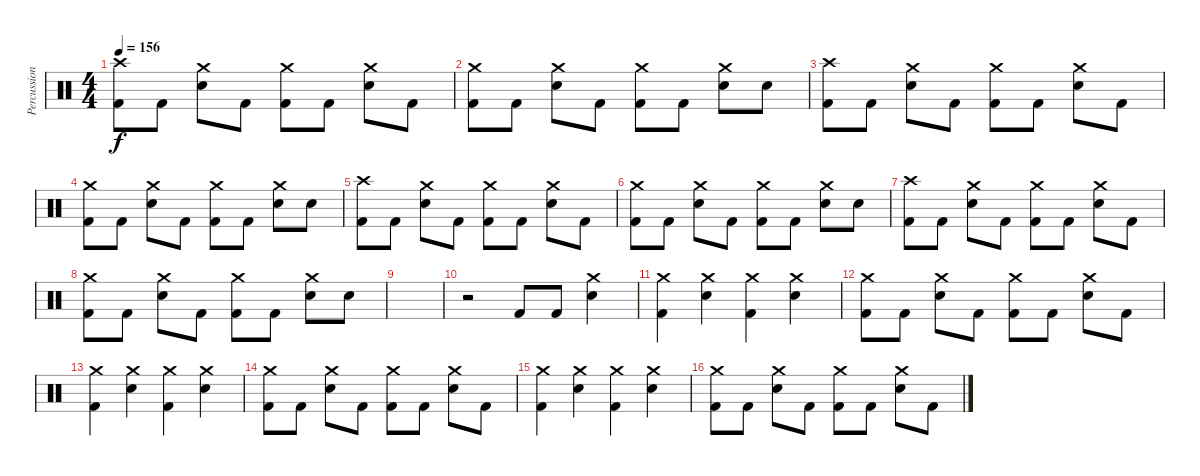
\track ("Percussion" "Percussion") {instrument percussion}
\staff {score}
\articulation defaults
\ts (4 4)
\tempo 156
\clef neutral
\ks c
("Crash high (hit)" "Kick (hit) 2").8{dy f} "Kick (hit) 2".8 ("Crash medium (hit)" "Electric Snare (hit)").8 "Kick (hit) 2".8 ("Crash medium (hit)" "Kick (hit) 2").8 "Kick (hit) 2".8 ("Crash medium (hit)" "Electric Snare (hit)").8 "Kick (hit) 2".8 |
("Crash medium (hit)" "Kick (hit) 2").8 "Kick (hit) 2".8 ("Crash medium (hit)" "Electric Snare (hit)").8 "Kick (hit) 2".8 ("Crash medium (hit)" "Kick (hit) 2").8 "Kick (hit) 2".8 ("Crash medium (hit)" "Electric Snare (hit)").8 "Electric Snare (hit)".8 |
("Crash high (hit)" "Kick (hit) 2").8 "Kick (hit) 2".8 ("Crash medium (hit)" "Electric Snare (hit)").8 "Kick (hit) 2".8 ("Crash medium (hit)" "Kick (hit) 2").8 "Kick (hit) 2".8 ("Crash medium (hit)" "Electric Snare (hit)").8 "Kick (hit) 2".8 |
("Crash medium (hit)" "Kick (hit) 2").8 "Kick (hit) 2".8 ("Crash medium (hit)" "Electric Snare (hit)").8 "Kick (hit) 2".8 ("Crash medium (hit)" "Kick (hit) 2").8 "Kick (hit) 2".8 ("Crash medium (hit)" "Electric Snare (hit)").8 "Electric Snare (hit)".8 |
("Crash high (hit)" "Kick (hit) 2").8 "Kick (hit) 2".8 ("Crash medium (hit)" "Electric Snare (hit)").8 "Kick (hit) 2".8 ("Crash medium (hit)" "Kick (hit) 2").8 "Kick (hit) 2".8 ("Crash medium (hit)" "Electric Snare (hit)").8 "Kick (hit) 2".8 |
("Crash medium (hit)" "Kick (hit) 2").8 "Kick (hit) 2".8 ("Crash medium (hit)" "Electric Snare (hit)").8 "Kick (hit) 2".8 ("Crash medium (hit)" "Kick (hit) 2").8 "Kick (hit) 2".8 ("Crash medium (hit)" "Electric Snare (hit)").8 "Electric Snare (hit)".8 |
("Crash high (hit)" "Kick (hit) 2").8 "Kick (hit) 2".8 ("Crash medium (hit)" "Electric Snare (hit)").8 "Kick (hit) 2".8 ("Crash medium (hit)" "Kick (hit) 2").8 "Kick (hit) 2".8 ("Crash medium (hit)" "Electric Snare (hit)").8 "Kick (hit) 2".8 |
("Crash medium (hit)" "Kick (hit) 2").8 "Kick (hit) 2".8 ("Crash medium (hit)" "Electric Snare (hit)").8 "Kick (hit) 2".8 ("Crash medium (hit)" "Kick (hit) 2").8 "Kick (hit) 2".8 ("Crash medium (hit)" "Electric Snare (hit)").8 "Electric Snare (hit)".8 |
|
r.2 "Kick (hit) 2".8 "Kick (hit) 2".8 ("Crash medium (hit)" "Electric Snare (hit)").4 |
("Crash medium (hit)" "Kick (hit) 2").4 ("Crash medium (hit)" "Electric Snare (hit)").4 ("Crash medium (hit)" "Kick (hit) 2").4 ("Crash medium (hit)" "Electric Snare (hit)").4 |
("Crash medium (hit)" "Kick (hit) 2").8 "Kick (hit) 2".8 ("Crash medium (hit)" "Electric Snare (hit)").8 "Kick (hit) 2".8 ("Crash medium (hit)" "Kick (hit) 2").8 "Kick (hit) 2".8 ("Crash medium (hit)" "Electric Snare (hit)").8 "Kick (hit) 2".8 |
("Crash medium (hit)" "Kick (hit) 2").4 ("Crash medium (hit)" "Electric Snare (hit)").4 ("Crash medium (hit)" "Kick (hit) 2").4 ("Crash medium (hit)" "Electric Snare (hit)").4 |
("Crash medium (hit)" "Kick (hit) 2").8 "Kick (hit) 2".8 ("Crash medium (hit)" "Electric Snare (hit)").8 "Kick (hit) 2".8 ("Crash medium (hit)" "Kick (hit) 2").8 "Kick (hit) 2".8 ("Crash medium (hit)" "Electric Snare (hit)").8 "Kick (hit) 2".8 |
("Crash medium (hit)" "Kick (hit) 2").4 ("Crash medium (hit)" "Electric Snare (hit)").4 ("Crash medium (hit)" "Kick (hit) 2").4 ("Crash medium (hit)" "Electric Snare (hit)").4 |
("Crash medium (hit)" "Kick (hit) 2").8 "Kick (hit) 2".8 ("Crash medium (hit)" "Electric Snare (hit)").8 "Kick (hit) 2".8 ("Crash medium (hit)" "Kick (hit) 2").8 "Kick (hit) 2".8 ("Crash medium (hit)" "Electric Snare (hit)").8 "Kick (hit) 2".8
